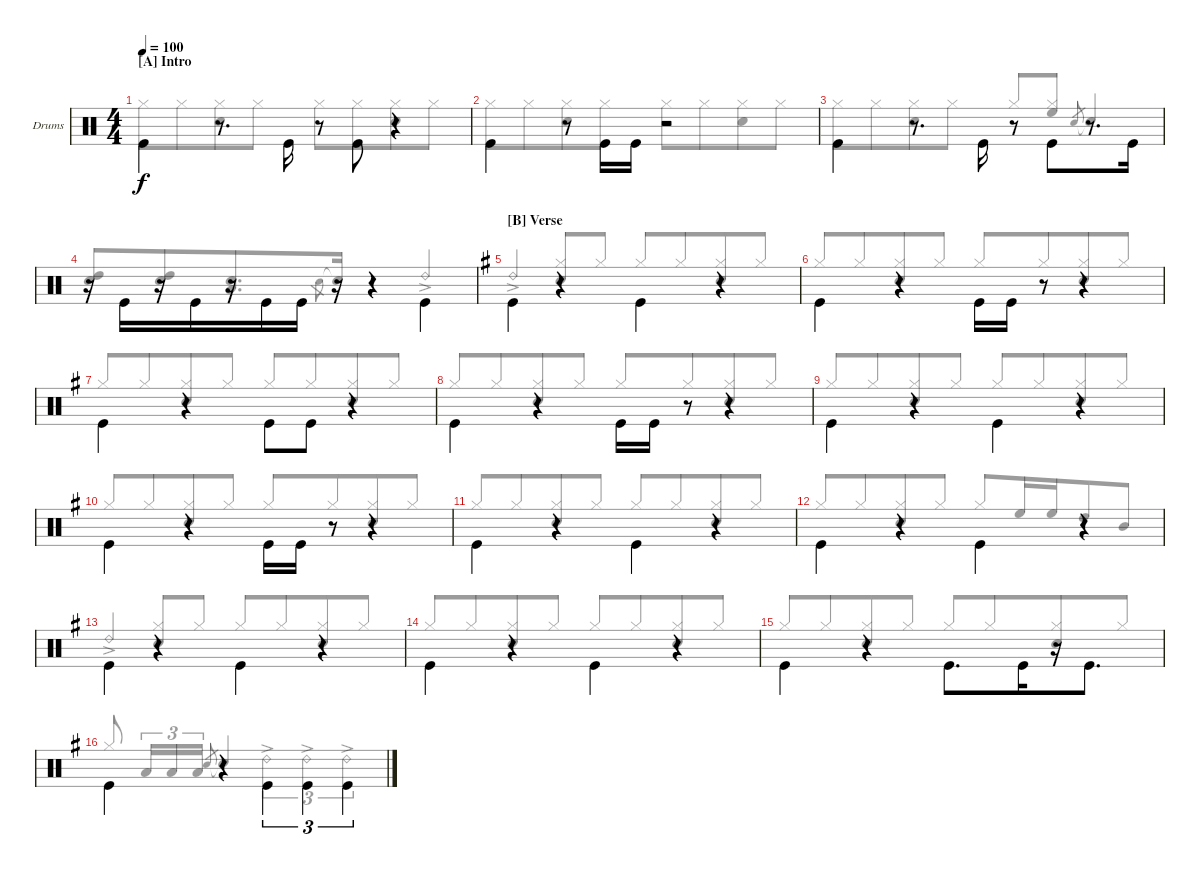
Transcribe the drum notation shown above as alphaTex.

\defaultSystemsLayout 4
\bracketExtendMode groupsimilarinstruments
\firstSystemTrackNameOrientation horizontal
\otherSystemsTrackNameOrientation horizontal
\track ("Drumkit" "Drums") {instrument percussion}
\staff {score}
\articulation defaults
\voice
\ts (4 4)
\beaming (8 4 4)
\section ("A" "Intro")
\tempo 100
\clef neutral
\scale
1.05675
\ks c "Kick (hit)".4{dy f beam invert}
r.8{d beam invert} "Kick (hit)".16{beam invert} r.8{beam invert} "Kick (hit)".8{beam invert} r.4{beam invert} |
\scale
0.943253 "Kick (hit)".4{beam invert} r.8 "Kick (hit)".16{beam invert} "Kick (hit)".16 r.2{beam invert} |
\scale
1.02648 "Kick (hit)".4{beam invert} r.8{d beam invert} "Kick (hit)".16{beam invert} r.8{beam invert} "Kick (hit)".8{beam invert} r.8{d beam invert} "Kick (hit)".16{beam invert} |
\scale
0.973518 r.16{beam invert} "Kick (hit)".16{beam invert} r.16 "Kick (hit)".16 r.16{beam invert} "Kick (hit)".16{beam invert} "Kick (hit)".16 r.16{beam invert} r.4{beam invert} "Kick (hit)".4{beam invert} |
\section ("B" "Verse")
\scale
1.02648
\ks g "Kick (hit)".4{beam invert}
r.4{beam invert} "Kick (hit)".4{beam invert} r.4{beam invert} |
\scale
0.973518 "Kick (hit)".4{beam invert} r.4 "Kick (hit)".16{beam invert} "Kick (hit)".16 r.8{beam invert} r.4{beam invert} |
\scale
1.02648 "Kick (hit)".4{beam invert} r.4 "Kick (hit)".8{beam invert} "Kick (hit)".8 r.4{beam invert} |
\scale
0.973518 "Kick (hit)".4{beam invert} r.4 "Kick (hit)".16{beam invert} "Kick (hit)".16 r.8{beam invert} r.4{beam invert} |
\scale
1.02648 "Kick (hit)".4{beam invert} r.4{beam invert} "Kick (hit)".4{beam invert} r.4{beam invert} |
\scale
0.973518 "Kick (hit)".4{beam invert} r.4 "Kick (hit)".16{beam invert} "Kick (hit)".16 r.8{beam invert} r.4{beam invert} |
\scale
1.02648 "Kick (hit)".4{beam invert} r.4{beam invert} "Kick (hit)".4{beam invert} r.4{beam invert} |
\scale
0.973518 "Kick (hit)".4{beam invert} r.4{beam invert} "Kick (hit)".4{beam invert} r.4{beam invert} |
\scale
1.02648 "Kick (hit)".4{beam invert} r.4{beam invert} "Kick (hit)".4{beam invert} r.4{beam invert} |
\scale
0.973518 "Kick (hit)".4{beam invert} r.4{beam invert} "Kick (hit)".4{beam invert} r.4{beam invert} |
\scale
1.02648 "Kick (hit)".4{beam invert} r.4 "Kick (hit)".8{d beam invert} "Kick (hit)".16 r.16{beam invert} "Kick (hit)".8{d beam invert} |
\scale
0.973518 "Kick (hit)".4{beam invert} r.4 "Kick (hit)".4{tu (3 2) beam invert} "Kick (hit)".4{tu (3 2) beam invert} "Kick (hit)".4{tu (3 2) beam invert}
\voice
\clef neutral
\ottava regular
\simile none
\scale
1.05675
\ks c "Hi-Hat (closed)".8{dy f} "Hi-Hat (closed)".8
("Hi-Hat (closed)" "Snare (hit) 2").8 "Hi-Hat (closed)".8 "Hi-Hat (closed)".8 "Hi-Hat (closed)".8 ("Hi-Hat (closed)" "Snare (hit) 2").8 "Hi-Hat (closed)".8 |
\scale
0.943253 "Hi-Hat (closed)".8 "Hi-Hat (closed)".8 ("Hi-Hat (closed)" "Snare (hit) 2").8 "Hi-Hat (closed)".8 "Hi-Hat (closed)".8 "Hi-Hat (closed)".8 ("Hi-Hat (closed)" "Snare (hit) 2").8 "Hi-Hat (closed)".8 |
\scale
1.02648 "Hi-Hat (closed)".8 "Hi-Hat (closed)".8 ("Hi-Hat (closed)" "Snare (hit) 2").8 "Hi-Hat (closed)".8 "Hi-Hat (closed)".8 ("Hi-Hat (closed)" "High Floor Tom (hit)").8 "Snare (hit) 2".8{gr beam invert} "Snare (hit) 2"{t}.4{beam invert} |
\scale
0.973518 ("Snare (hit) 2" "High Tom (hit)").8{beam invert} ("Snare (hit) 2" "High Tom (hit)").8 ("Low Tom (hit)" "Snare (hit) 2").8{d beam invert} "Snare (hit) 2".8{gr} "Snare (hit) 2"{t}.16 r.4 "Ride (bell) 2"{ac}.4{beam invert} |
\scale
1.02648
\ks g "Ride (bell) 2"{ac}.4{beam invert}
("Hi-Hat (closed)" "Snare (hit) 2").8{beam invert} "Hi-Hat (closed)".8 "Hi-Hat (closed)".8{beam invert} "Hi-Hat (closed)".8 ("Hi-Hat (closed)" "Snare (hit) 2").8{beam invert} "Hi-Hat (closed)".8 |
\scale
0.973518 "Hi-Hat (closed)".8{beam invert} "Hi-Hat (closed)".8 ("Hi-Hat (closed)" "Snare (hit) 2").8{beam invert} "Hi-Hat (closed)".8 "Hi-Hat (closed)".8{beam invert} "Hi-Hat (closed)".8 ("Hi-Hat (closed)" "Snare (hit) 2").8{beam invert} "Hi-Hat (closed)".8 |
\scale
1.02648 "Hi-Hat (closed)".8{beam invert} "Hi-Hat (closed)".8 ("Hi-Hat (closed)" "Snare (hit) 2").8{beam invert} "Hi-Hat (closed)".8 "Hi-Hat (closed)".8{beam invert} "Hi-Hat (closed)".8 ("Hi-Hat (closed)" "Snare (hit) 2").8{beam invert} "Hi-Hat (closed)".8 |
\scale
0.973518 "Hi-Hat (closed)".8{beam invert} "Hi-Hat (closed)".8 ("Hi-Hat (closed)" "Snare (hit) 2").8{beam invert} "Hi-Hat (closed)".8 "Hi-Hat (closed)".8{beam invert} "Hi-Hat (closed)".8 ("Hi-Hat (closed)" "Snare (hit) 2").8{beam invert} "Hi-Hat (closed)".8 |
\scale
1.02648 "Hi-Hat (closed)".8{beam invert} "Hi-Hat (closed)".8 ("Hi-Hat (closed)" "Snare (hit) 2").8{beam invert} "Hi-Hat (closed)".8 "Hi-Hat (closed)".8{beam invert} "Hi-Hat (closed)".8 ("Hi-Hat (closed)" "Snare (hit) 2").8{beam invert} "Hi-Hat (closed)".8 |
\scale
0.973518 "Hi-Hat (closed)".8{beam invert} "Hi-Hat (closed)".8 ("Hi-Hat (closed)" "Snare (hit) 2").8{beam invert} "Hi-Hat (closed)".8 "Hi-Hat (closed)".8{beam invert} "Hi-Hat (closed)".8 ("Hi-Hat (closed)" "Snare (hit) 2").8{beam invert} "Hi-Hat (closed)".8 |
\scale
1.02648 "Hi-Hat (closed)".8{beam invert} "Hi-Hat (closed)".8 ("Hi-Hat (closed)" "Snare (hit) 2").8{beam invert} "Hi-Hat (closed)".8 "Hi-Hat (closed)".8{beam invert} "Hi-Hat (closed)".8 ("Hi-Hat (closed)" "Snare (hit) 2").8{beam invert} "Hi-Hat (closed)".8 |
\scale
0.973518 "Hi-Hat (closed)".8{beam invert} "Hi-Hat (closed)".8 ("Hi-Hat (closed)" "Snare (hit) 2").8{beam invert} "Hi-Hat (closed)".8 "Hi-Hat (closed)".8{beam invert} "High Floor Tom (hit)".16 "High Floor Tom (hit)".16 "High Tom (hit)".8 "Mid Tom (hit)".8{beam invert} |
\scale
1.02648 "Ride (bell) 2"{ac}.4{beam invert} ("Hi-Hat (closed)" "Snare (hit) 2").8{beam invert} "Hi-Hat (closed)".8 "Hi-Hat (closed)".8{beam invert} "Hi-Hat (closed)".8 ("Hi-Hat (closed)" "Snare (hit) 2").8{beam invert} "Hi-Hat (closed)".8 |
\scale
0.973518 "Hi-Hat (closed)".8{beam invert} "Hi-Hat (closed)".8 ("Hi-Hat (closed)" "Snare (hit) 2").8 "Hi-Hat (closed)".8{beam invert} "Hi-Hat (closed)".8 "Hi-Hat (closed)".8{beam invert} ("Hi-Hat (closed)" "Snare (hit) 2").8 "Hi-Hat (closed)".8{beam invert} |
\scale
1.02648 "Hi-Hat (closed)".8{beam invert} "Hi-Hat (closed)".8 ("Hi-Hat (closed)" "Snare (hit) 2").8 "Hi-Hat (closed)".8{beam invert} "Hi-Hat (closed)".8 "Hi-Hat (closed)".8{beam invert} ("Hi-Hat (closed)" "Snare (hit) 2").8 "Hi-Hat (closed)".8{beam invert} |
\scale
0.973518 "Hi-Hat (closed)".8 "Low Tom (hit)".16{tu (3 2) beam invert} "Low Tom (hit)".16{tu (3 2)} "Low Tom (hit)".16{tu (3 2)} "Snare (hit) 2".8{gr beam invert} "Snare (hit) 2"{t}.4{beam invert} "Ride (bell) 2"{ac}.4{tu (3 2)} "Ride (bell) 2"{ac}.4{tu (3 2)} "Ride (bell) 2"{ac}.4{tu (3 2)}
